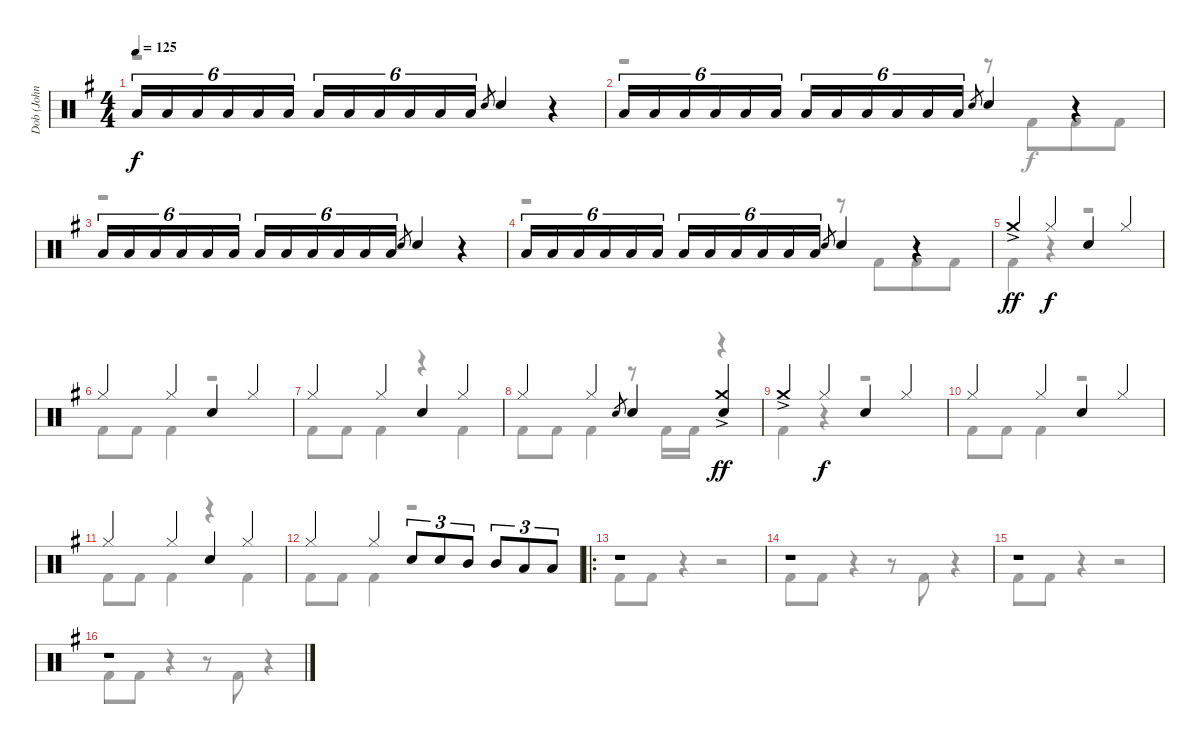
\track ("Dob (John Macaluso)" "Dob (John ") {instrument percussion}
\staff {score}
\articulation defaults
\voice
\ts (4 4)
\tempo 125
\clef neutral
\ks g "Low Tom (hit)".16{tu (6 4) dy f} "Low Tom (hit)".16{tu (6 4)} "Low Tom (hit)".16{tu (6 4)} "Low Tom (hit)".16{tu (6 4)} "Low Tom (hit)".16{tu (6 4)} "Low Tom (hit)".16{tu (6 4)} "Low Tom (hit)".16{tu (6 4)} "Low Tom (hit)".16{tu (6 4)} "Low Tom (hit)".16{tu (6 4)} "Low Tom (hit)".16{tu (6 4)} "Low Tom (hit)".16{tu (6 4)} "Low Tom (hit)".16{tu (6 4)} "Electric Snare (hit)".8{gr} "Electric Snare (hit)".4
r.4 |
"Low Tom (hit)".16{tu (6 4)} "Low Tom (hit)".16{tu (6 4)} "Low Tom (hit)".16{tu (6 4)} "Low Tom (hit)".16{tu (6 4)} "Low Tom (hit)".16{tu (6 4)} "Low Tom (hit)".16{tu (6 4)} "Low Tom (hit)".16{tu (6 4)} "Low Tom (hit)".16{tu (6 4)} "Low Tom (hit)".16{tu (6 4)} "Low Tom (hit)".16{tu (6 4)} "Low Tom (hit)".16{tu (6 4)} "Low Tom (hit)".16{tu (6 4)} "Electric Snare (hit)".8{gr} "Electric Snare (hit)".4 r.4 |
"Low Tom (hit)".16{tu (6 4)} "Low Tom (hit)".16{tu (6 4)} "Low Tom (hit)".16{tu (6 4)} "Low Tom (hit)".16{tu (6 4)} "Low Tom (hit)".16{tu (6 4)} "Low Tom (hit)".16{tu (6 4)} "Low Tom (hit)".16{tu (6 4)} "Low Tom (hit)".16{tu (6 4)} "Low Tom (hit)".16{tu (6 4)} "Low Tom (hit)".16{tu (6 4)} "Low Tom (hit)".16{tu (6 4)} "Low Tom (hit)".16{tu (6 4)} "Electric Snare (hit)".8{gr} "Electric Snare (hit)".4 r.4 |
"Low Tom (hit)".16{tu (6 4)} "Low Tom (hit)".16{tu (6 4)} "Low Tom (hit)".16{tu (6 4)} "Low Tom (hit)".16{tu (6 4)} "Low Tom (hit)".16{tu (6 4)} "Low Tom (hit)".16{tu (6 4)} "Low Tom (hit)".16{tu (6 4)} "Low Tom (hit)".16{tu (6 4)} "Low Tom (hit)".16{tu (6 4)} "Low Tom (hit)".16{tu (6 4)} "Low Tom (hit)".16{tu (6 4)} "Low Tom (hit)".16{tu (6 4)} "Electric Snare (hit)".8{gr} "Electric Snare (hit)".4 r.4 |
"Crash medium (hit)"{ac}.4{dy ff} "Hi-Hat (closed)".4{dy f} "Electric Snare (hit)".4 "Hi-Hat (closed)".4 |
"Hi-Hat (closed)".4 "Hi-Hat (closed)".4 "Electric Snare (hit)".4 "Hi-Hat (closed)".4 |
"Hi-Hat (closed)".4 "Hi-Hat (closed)".4 "Electric Snare (hit)".4 "Hi-Hat (closed)".4 |
"Hi-Hat (closed)".4 "Hi-Hat (closed)".4 "Electric Snare (hit)".8{gr} "Electric Snare (hit)".4 ("Crash medium (hit)"{ac} "Electric Snare (hit)").4{dy ff} |
"Crash medium (hit)"{ac}.4 "Hi-Hat (closed)".4{dy f} "Electric Snare (hit)".4 "Hi-Hat (closed)".4 |
"Hi-Hat (closed)".4 "Hi-Hat (closed)".4 "Electric Snare (hit)".4 "Hi-Hat (closed)".4 |
"Hi-Hat (closed)".4 "Hi-Hat (closed)".4 "Electric Snare (hit)".4 "Hi-Hat (closed)".4 |
"Hi-Hat (closed)".4 "Hi-Hat (closed)".4 "Electric Snare (hit)".8{tu (3 2)} "Electric Snare (hit)".8{tu (3 2)} "Mid Tom (hit)".8{tu (3 2)} "Mid Tom (hit)".8{tu (3 2)} "Low Tom (hit)".8{tu (3 2)} "Low Tom (hit)".8{tu (3 2)} |
\ro
r.1 |
r.1 |
r.1 |
r.1
\voice
\clef neutral
\ottava regular
\simile none
\ks g
r.1{dy f} |
r.2 r.8 "Kick (hit) 2".8{beam merge} "Kick (hit) 2".8 "Kick (hit) 2".8 |
r.1 |
r.2 r.8 "Kick (hit) 2".8{beam merge} "Kick (hit) 2".8 "Kick (hit) 2".8 |
"Kick (hit) 2".4 r.4 r.2 |
"Kick (hit) 2".8 "Kick (hit) 2".8 "Kick (hit) 2".4 r.2 |
"Kick (hit) 2".8 "Kick (hit) 2".8 "Kick (hit) 2".4 r.4 "Kick (hit) 2".4 |
"Kick (hit) 2".8 "Kick (hit) 2".8 "Kick (hit) 2".4 r.8 "Kick (hit) 2".16 "Kick (hit) 2".16 r.4 |
"Kick (hit) 2".4 r.4 r.2 |
"Kick (hit) 2".8 "Kick (hit) 2".8 "Kick (hit) 2".4 r.2 |
"Kick (hit) 2".8 "Kick (hit) 2".8 "Kick (hit) 2".4 r.4 "Kick (hit) 2".4 |
"Kick (hit) 2".8 "Kick (hit) 2".8 "Kick (hit) 2".4 r.2 |
"Kick (hit) 2".8 "Kick (hit) 2".8 r.4 r.2 |
"Kick (hit) 2".8 "Kick (hit) 2".8 r.4 r.8 "Kick (hit) 2".8 r.4 |
"Kick (hit) 2".8 "Kick (hit) 2".8 r.4 r.2 |
"Kick (hit) 2".8 "Kick (hit) 2".8 r.4 r.8 "Kick (hit) 2".8 r.4
